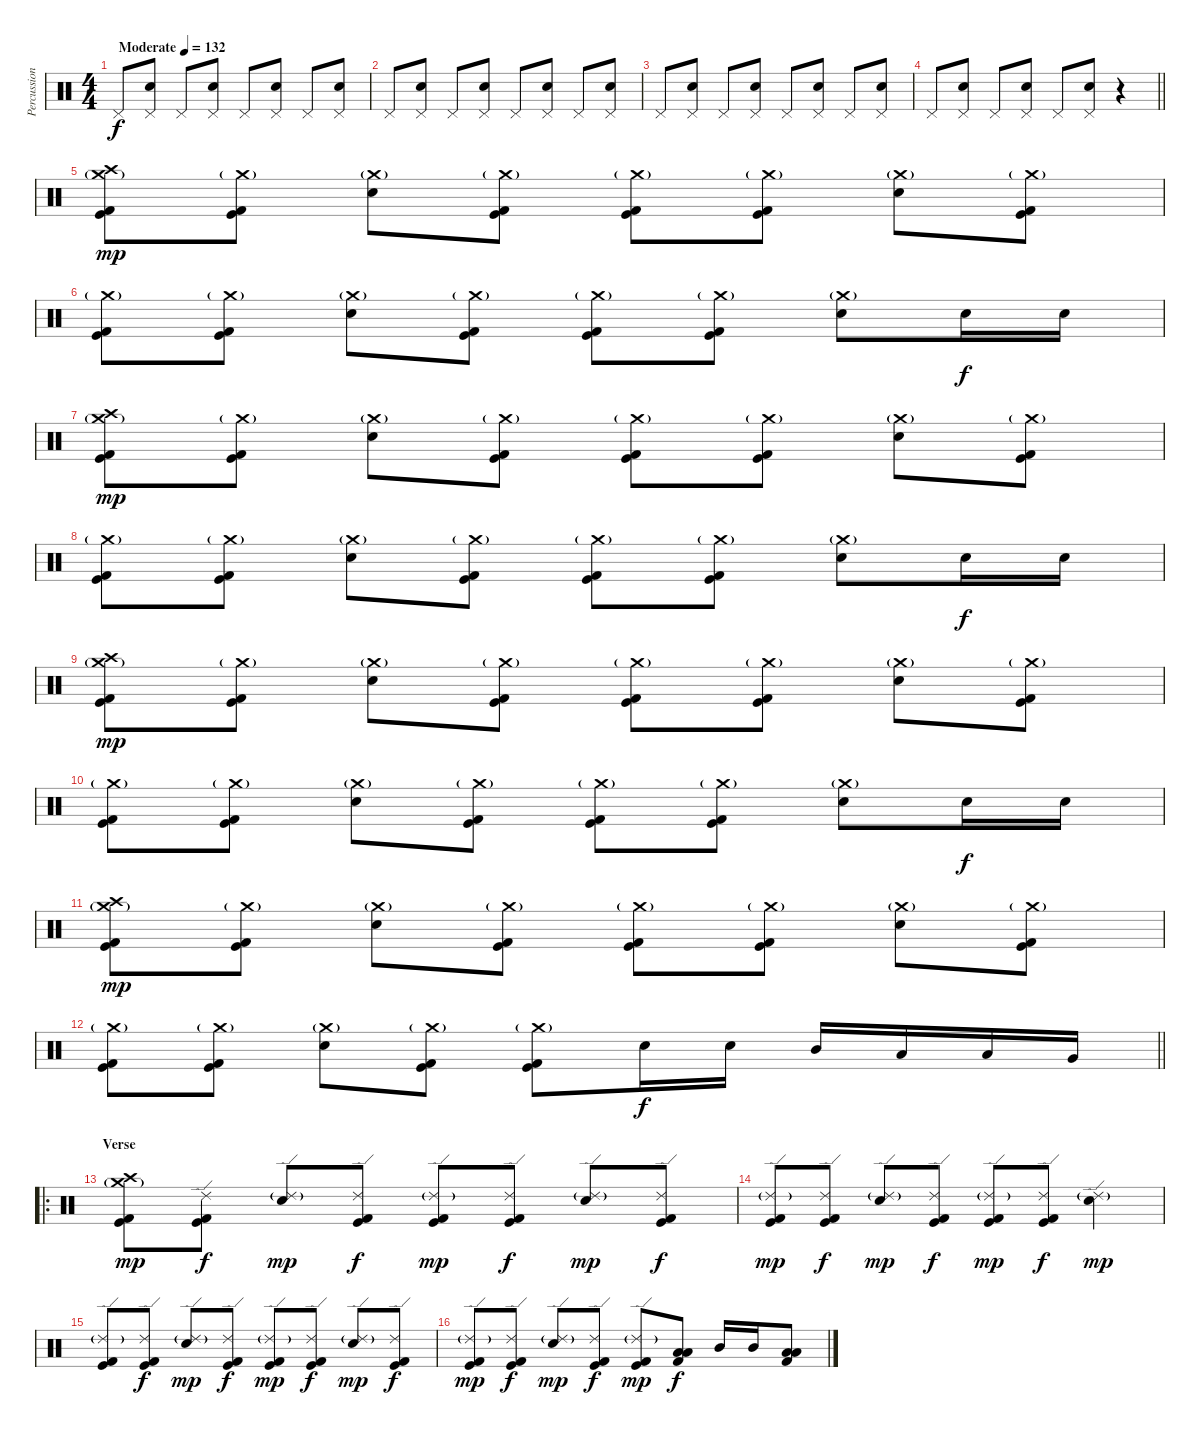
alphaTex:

\track ("Percussion" "Percussion") {instrument percussion}
\staff {score}
\articulation defaults
\ts (4 4)
\tempo (132 "Moderate")
\clef neutral
\ks c "Pedal Hi-Hat (hit)".8{dy f}
("Pedal Hi-Hat (hit)" "Electric Snare (hit)").8 "Pedal Hi-Hat (hit)".8 ("Pedal Hi-Hat (hit)" "Electric Snare (hit)").8 "Pedal Hi-Hat (hit)".8 ("Pedal Hi-Hat (hit)" "Electric Snare (hit)").8 "Pedal Hi-Hat (hit)".8 ("Pedal Hi-Hat (hit)" "Electric Snare (hit)").8 |
"Pedal Hi-Hat (hit)".8 ("Pedal Hi-Hat (hit)" "Electric Snare (hit)").8 "Pedal Hi-Hat (hit)".8 ("Pedal Hi-Hat (hit)" "Electric Snare (hit)").8 "Pedal Hi-Hat (hit)".8 ("Pedal Hi-Hat (hit)" "Electric Snare (hit)").8 "Pedal Hi-Hat (hit)".8 ("Pedal Hi-Hat (hit)" "Electric Snare (hit)").8 |
"Pedal Hi-Hat (hit)".8 ("Pedal Hi-Hat (hit)" "Electric Snare (hit)").8 "Pedal Hi-Hat (hit)".8 ("Pedal Hi-Hat (hit)" "Electric Snare (hit)").8 "Pedal Hi-Hat (hit)".8 ("Pedal Hi-Hat (hit)" "Electric Snare (hit)").8 "Pedal Hi-Hat (hit)".8 ("Pedal Hi-Hat (hit)" "Electric Snare (hit)").8 |
\barLineRight lightlight "Pedal Hi-Hat (hit)".8
("Pedal Hi-Hat (hit)" "Electric Snare (hit)").8 "Pedal Hi-Hat (hit)".8 ("Pedal Hi-Hat (hit)" "Electric Snare (hit)").8 "Pedal Hi-Hat (hit)".8 ("Pedal Hi-Hat (hit)" "Electric Snare (hit)").8 r.4 |
\section ("" "")
("Crash medium (hit)"{g} "Crash high (hit)" "Kick (hit)" "Kick (hit) 2").8{dy mp} ("Crash medium (hit)"{g} "Kick (hit)" "Kick (hit) 2").8 ("Crash medium (hit)"{g} "Electric Snare (hit)").8 ("Crash medium (hit)"{g} "Kick (hit)" "Kick (hit) 2").8 ("Crash medium (hit)"{g} "Kick (hit)" "Kick (hit) 2").8 ("Crash medium (hit)"{g} "Kick (hit)" "Kick (hit) 2").8 ("Crash medium (hit)"{g} "Electric Snare (hit)").8 ("Crash medium (hit)"{g} "Kick (hit)" "Kick (hit) 2").8 |
("Crash medium (hit)"{g} "Kick (hit)" "Kick (hit) 2").8 ("Crash medium (hit)"{g} "Kick (hit)" "Kick (hit) 2").8 ("Crash medium (hit)"{g} "Electric Snare (hit)").8 ("Crash medium (hit)"{g} "Kick (hit)" "Kick (hit) 2").8 ("Crash medium (hit)"{g} "Kick (hit)" "Kick (hit) 2").8 ("Crash medium (hit)"{g} "Kick (hit)" "Kick (hit) 2").8 ("Crash medium (hit)"{g} "Electric Snare (hit)").8 "Electric Snare (hit)".16{dy f} "Electric Snare (hit)".16 |
("Crash medium (hit)"{g} "Crash high (hit)" "Kick (hit)" "Kick (hit) 2").8{dy mp} ("Crash medium (hit)"{g} "Kick (hit)" "Kick (hit) 2").8 ("Crash medium (hit)"{g} "Electric Snare (hit)").8 ("Crash medium (hit)"{g} "Kick (hit)" "Kick (hit) 2").8 ("Crash medium (hit)"{g} "Kick (hit)" "Kick (hit) 2").8 ("Crash medium (hit)"{g} "Kick (hit)" "Kick (hit) 2").8 ("Crash medium (hit)"{g} "Electric Snare (hit)").8 ("Crash medium (hit)"{g} "Kick (hit)" "Kick (hit) 2").8 |
("Crash medium (hit)"{g} "Kick (hit)" "Kick (hit) 2").8 ("Crash medium (hit)"{g} "Kick (hit)" "Kick (hit) 2").8 ("Crash medium (hit)"{g} "Electric Snare (hit)").8 ("Crash medium (hit)"{g} "Kick (hit)" "Kick (hit) 2").8 ("Crash medium (hit)"{g} "Kick (hit)" "Kick (hit) 2").8 ("Crash medium (hit)"{g} "Kick (hit)" "Kick (hit) 2").8 ("Crash medium (hit)"{g} "Electric Snare (hit)").8 "Electric Snare (hit)".16{dy f} "Electric Snare (hit)".16 |
("Crash medium (hit)"{g} "Crash high (hit)" "Kick (hit)" "Kick (hit) 2").8{dy mp} ("Crash medium (hit)"{g} "Kick (hit)" "Kick (hit) 2").8 ("Crash medium (hit)"{g} "Electric Snare (hit)").8 ("Crash medium (hit)"{g} "Kick (hit)" "Kick (hit) 2").8 ("Crash medium (hit)"{g} "Kick (hit)" "Kick (hit) 2").8 ("Crash medium (hit)"{g} "Kick (hit)" "Kick (hit) 2").8 ("Crash medium (hit)"{g} "Electric Snare (hit)").8 ("Crash medium (hit)"{g} "Kick (hit)" "Kick (hit) 2").8 |
("Crash medium (hit)"{g} "Kick (hit)" "Kick (hit) 2").8 ("Crash medium (hit)"{g} "Kick (hit)" "Kick (hit) 2").8 ("Crash medium (hit)"{g} "Electric Snare (hit)").8 ("Crash medium (hit)"{g} "Kick (hit)" "Kick (hit) 2").8 ("Crash medium (hit)"{g} "Kick (hit)" "Kick (hit) 2").8 ("Crash medium (hit)"{g} "Kick (hit)" "Kick (hit) 2").8 ("Crash medium (hit)"{g} "Electric Snare (hit)").8 "Electric Snare (hit)".16{dy f} "Electric Snare (hit)".16 |
("Crash medium (hit)"{g} "Crash high (hit)" "Kick (hit)" "Kick (hit) 2").8{dy mp} ("Crash medium (hit)"{g} "Kick (hit)" "Kick (hit) 2").8 ("Crash medium (hit)"{g} "Electric Snare (hit)").8 ("Crash medium (hit)"{g} "Kick (hit)" "Kick (hit) 2").8 ("Crash medium (hit)"{g} "Kick (hit)" "Kick (hit) 2").8 ("Crash medium (hit)"{g} "Kick (hit)" "Kick (hit) 2").8 ("Crash medium (hit)"{g} "Electric Snare (hit)").8 ("Crash medium (hit)"{g} "Kick (hit)" "Kick (hit) 2").8 |
\barLineRight lightlight
("Crash medium (hit)"{g} "Kick (hit)" "Kick (hit) 2").8 ("Crash medium (hit)"{g} "Kick (hit)" "Kick (hit) 2").8 ("Crash medium (hit)"{g} "Electric Snare (hit)").8 ("Crash medium (hit)"{g} "Kick (hit)" "Kick (hit) 2").8 ("Crash medium (hit)"{g} "Kick (hit)" "Kick (hit) 2").8 "Electric Snare (hit)".16{dy f} "Electric Snare (hit)".16 "Mid Tom (hit)".16 "Low Tom (hit)".16 "Low Tom (hit)".16 "Very Low Tom (hit)".16 |
\ro
\section ("" "Verse")
("Crash medium (hit)"{g} "Crash high (hit)" "Kick (hit)" "Kick (hit) 2").8{dy mp} ("Ride (edge) 2" "Kick (hit)" "Kick (hit) 2").8{dy f} ("Ride (edge) 2"{g} "Electric Snare (hit)").8{dy mp} ("Ride (edge) 2" "Kick (hit)" "Kick (hit) 2").8{dy f} ("Ride (edge) 2"{g} "Kick (hit)" "Kick (hit) 2").8{dy mp} ("Ride (edge) 2" "Kick (hit)" "Kick (hit) 2").8{dy f} ("Ride (edge) 2"{g} "Electric Snare (hit)").8{dy mp} ("Ride (edge) 2" "Kick (hit)" "Kick (hit) 2").8{dy f} |
("Ride (edge) 2"{g} "Kick (hit)" "Kick (hit) 2").8{dy mp} ("Ride (edge) 2" "Kick (hit)" "Kick (hit) 2").8{dy f} ("Ride (edge) 2"{g} "Electric Snare (hit)").8{dy mp} ("Ride (edge) 2" "Kick (hit)" "Kick (hit) 2").8{dy f} ("Ride (edge) 2"{g} "Kick (hit)" "Kick (hit) 2").8{dy mp} ("Ride (edge) 2" "Kick (hit)" "Kick (hit) 2").8{dy f} ("Ride (edge) 2"{g} "Electric Snare (hit)").4{dy mp} |
("Ride (edge) 2"{g} "Kick (hit)" "Kick (hit) 2").8 ("Ride (edge) 2" "Kick (hit)" "Kick (hit) 2").8{dy f} ("Ride (edge) 2"{g} "Electric Snare (hit)").8{dy mp} ("Ride (edge) 2" "Kick (hit)" "Kick (hit) 2").8{dy f} ("Ride (edge) 2"{g} "Kick (hit)" "Kick (hit) 2").8{dy mp} ("Ride (edge) 2" "Kick (hit)" "Kick (hit) 2").8{dy f} ("Ride (edge) 2"{g} "Electric Snare (hit)").8{dy mp} ("Ride (edge) 2" "Kick (hit)" "Kick (hit) 2").8{dy f} |
("Ride (edge) 2"{g} "Kick (hit)" "Kick (hit) 2").8{dy mp} ("Ride (edge) 2" "Kick (hit)" "Kick (hit) 2").8{dy f} ("Ride (edge) 2"{g} "Electric Snare (hit)").8{dy mp} ("Ride (edge) 2" "Kick (hit)" "Kick (hit) 2").8{dy f} ("Ride (edge) 2"{g} "Kick (hit)" "Kick (hit) 2").8{dy mp} ("Low Tom (hit)" "Low Floor Tom (hit)" "Kick (hit) 2").8{dy f} "Mid Tom (hit)".16 "Mid Tom (hit)".16 ("Low Tom (hit)" "Low Floor Tom (hit)" "Kick (hit) 2").8
